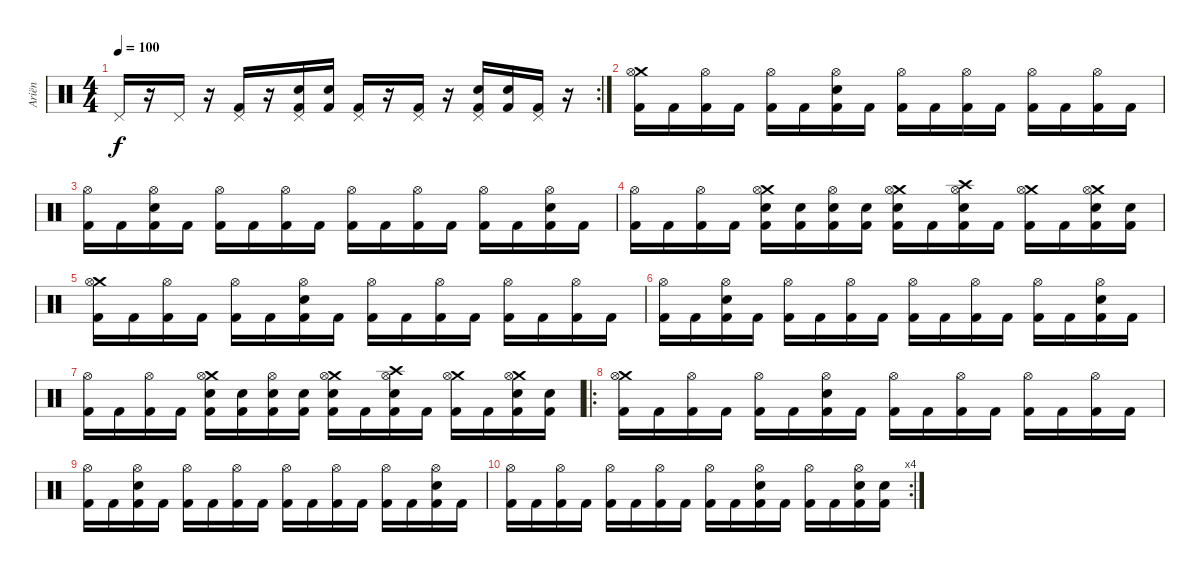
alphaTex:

\track ("Ariën" "Ariën") {instrument percussion}
\staff {score}
\articulation defaults
\rc 2
\ts (4 4)
\tempo 100
\clef neutral
\ks c "Pedal Hi-Hat (hit)".16{dy f}
r.16 "Pedal Hi-Hat (hit)".16 r.16 ("Pedal Hi-Hat (hit)" "Kick (hit) 2").16 r.16 ("Pedal Hi-Hat (hit)" "Snare (hit) 2" "Kick (hit) 2").16 ("Snare (hit) 2" "Kick (hit) 2").16 ("Pedal Hi-Hat (hit)" "Kick (hit) 2").16 r.16 ("Pedal Hi-Hat (hit)" "Kick (hit) 2").16 r.16 ("Pedal Hi-Hat (hit)" "Snare (hit) 2" "Kick (hit) 2").16 ("Snare (hit) 2" "Kick (hit) 2").16 ("Pedal Hi-Hat (hit)" "Kick (hit) 2").16 r.16 |
("Crash medium (hit)" "Hi-Hat (open)" "Kick (hit) 2").16 "Kick (hit) 2".16 ("Hi-Hat (open)" "Kick (hit) 2").16 "Kick (hit) 2".16 ("Hi-Hat (open)" "Kick (hit) 2").16 "Kick (hit) 2".16 ("Hi-Hat (open)" "Snare (hit) 2" "Kick (hit) 2").16 "Kick (hit) 2".16 ("Hi-Hat (open)" "Kick (hit) 2").16 "Kick (hit) 2".16 ("Hi-Hat (open)" "Kick (hit) 2").16 "Kick (hit) 2".16 ("Hi-Hat (open)" "Kick (hit) 2").16 "Kick (hit) 2".16 ("Hi-Hat (open)" "Kick (hit) 2").16 "Kick (hit) 2".16 |
("Hi-Hat (open)" "Kick (hit) 2").16 "Kick (hit) 2".16 ("Hi-Hat (open)" "Snare (hit) 2" "Kick (hit) 2").16 "Kick (hit) 2".16 ("Hi-Hat (open)" "Kick (hit) 2").16 "Kick (hit) 2".16 ("Hi-Hat (open)" "Kick (hit) 2").16 "Kick (hit) 2".16 ("Hi-Hat (open)" "Kick (hit) 2").16 "Kick (hit) 2".16 ("Hi-Hat (open)" "Kick (hit) 2").16 "Kick (hit) 2".16 ("Hi-Hat (open)" "Kick (hit) 2").16 "Kick (hit) 2".16 ("Hi-Hat (open)" "Snare (hit) 2" "Kick (hit) 2").16 "Kick (hit) 2".16 |
("Hi-Hat (open)" "Kick (hit) 2").16 "Kick (hit) 2".16 ("Hi-Hat (open)" "Kick (hit) 2").16 "Kick (hit) 2".16 ("Crash medium (hit)" "Hi-Hat (open)" "Snare (hit) 2" "Kick (hit) 2").16 ("Snare (hit) 2" "Kick (hit) 2").16 ("Hi-Hat (open)" "Snare (hit) 2" "Kick (hit) 2").16 ("Snare (hit) 2" "Kick (hit) 2").16 ("Crash medium (hit)" "Hi-Hat (open)" "Snare (hit) 2" "Kick (hit) 2").16 "Kick (hit) 2".16 ("Crash high (hit)" "Hi-Hat (open)" "Snare (hit) 2" "Kick (hit) 2").16 "Kick (hit) 2".16 ("Crash medium (hit)" "Hi-Hat (open)" "Kick (hit) 2").16 "Kick (hit) 2".16 ("Crash medium (hit)" "Hi-Hat (open)" "Snare (hit) 2" "Kick (hit) 2").16 ("Snare (hit) 2" "Kick (hit) 2").16 |
("Crash medium (hit)" "Hi-Hat (open)" "Kick (hit) 2").16 "Kick (hit) 2".16 ("Hi-Hat (open)" "Kick (hit) 2").16 "Kick (hit) 2".16 ("Hi-Hat (open)" "Kick (hit) 2").16 "Kick (hit) 2".16 ("Hi-Hat (open)" "Snare (hit) 2" "Kick (hit) 2").16 "Kick (hit) 2".16 ("Hi-Hat (open)" "Kick (hit) 2").16 "Kick (hit) 2".16 ("Hi-Hat (open)" "Kick (hit) 2").16 "Kick (hit) 2".16 ("Hi-Hat (open)" "Kick (hit) 2").16 "Kick (hit) 2".16 ("Hi-Hat (open)" "Kick (hit) 2").16 "Kick (hit) 2".16 |
("Hi-Hat (open)" "Kick (hit) 2").16 "Kick (hit) 2".16 ("Hi-Hat (open)" "Snare (hit) 2" "Kick (hit) 2").16 "Kick (hit) 2".16 ("Hi-Hat (open)" "Kick (hit) 2").16 "Kick (hit) 2".16 ("Hi-Hat (open)" "Kick (hit) 2").16 "Kick (hit) 2".16 ("Hi-Hat (open)" "Kick (hit) 2").16 "Kick (hit) 2".16 ("Hi-Hat (open)" "Kick (hit) 2").16 "Kick (hit) 2".16 ("Hi-Hat (open)" "Kick (hit) 2").16 "Kick (hit) 2".16 ("Hi-Hat (open)" "Snare (hit) 2" "Kick (hit) 2").16 "Kick (hit) 2".16 |
("Hi-Hat (open)" "Kick (hit) 2").16 "Kick (hit) 2".16 ("Hi-Hat (open)" "Kick (hit) 2").16 "Kick (hit) 2".16 ("Crash medium (hit)" "Hi-Hat (open)" "Snare (hit) 2" "Kick (hit) 2").16 ("Snare (hit) 2" "Kick (hit) 2").16 ("Hi-Hat (open)" "Snare (hit) 2" "Kick (hit) 2").16 ("Snare (hit) 2" "Kick (hit) 2").16 ("Crash medium (hit)" "Hi-Hat (open)" "Snare (hit) 2" "Kick (hit) 2").16 "Kick (hit) 2".16 ("Crash high (hit)" "Hi-Hat (open)" "Snare (hit) 2" "Kick (hit) 2").16 "Kick (hit) 2".16 ("Crash medium (hit)" "Hi-Hat (open)" "Kick (hit) 2").16 "Kick (hit) 2".16 ("Crash medium (hit)" "Hi-Hat (open)" "Snare (hit) 2" "Kick (hit) 2").16 ("Snare (hit) 2" "Kick (hit) 2").16 |
\ro
("Crash medium (hit)" "Hi-Hat (open)" "Kick (hit) 2").16 "Kick (hit) 2".16 ("Hi-Hat (open)" "Kick (hit) 2").16 "Kick (hit) 2".16 ("Hi-Hat (open)" "Kick (hit) 2").16 "Kick (hit) 2".16 ("Hi-Hat (open)" "Snare (hit) 2" "Kick (hit) 2").16 "Kick (hit) 2".16 ("Hi-Hat (open)" "Kick (hit) 2").16 "Kick (hit) 2".16 ("Hi-Hat (open)" "Kick (hit) 2").16 "Kick (hit) 2".16 ("Hi-Hat (open)" "Kick (hit) 2").16 "Kick (hit) 2".16 ("Hi-Hat (open)" "Kick (hit) 2").16 "Kick (hit) 2".16 |
("Hi-Hat (open)" "Kick (hit) 2").16 "Kick (hit) 2".16 ("Hi-Hat (open)" "Snare (hit) 2" "Kick (hit) 2").16 "Kick (hit) 2".16 ("Hi-Hat (open)" "Kick (hit) 2").16 "Kick (hit) 2".16 ("Hi-Hat (open)" "Kick (hit) 2").16 "Kick (hit) 2".16 ("Hi-Hat (open)" "Kick (hit) 2").16 "Kick (hit) 2".16 ("Hi-Hat (open)" "Kick (hit) 2").16 "Kick (hit) 2".16 ("Hi-Hat (open)" "Kick (hit) 2").16 "Kick (hit) 2".16 ("Hi-Hat (open)" "Snare (hit) 2" "Kick (hit) 2").16 "Kick (hit) 2".16 |
\rc 4
("Hi-Hat (open)" "Kick (hit) 2").16 "Kick (hit) 2".16 ("Hi-Hat (open)" "Kick (hit) 2").16 "Kick (hit) 2".16 ("Hi-Hat (open)" "Kick (hit) 2").16 "Kick (hit) 2".16 ("Hi-Hat (open)" "Kick (hit) 2").16 "Kick (hit) 2".16 ("Hi-Hat (open)" "Kick (hit) 2").16 "Kick (hit) 2".16 ("Hi-Hat (open)" "Snare (hit) 2" "Kick (hit) 2").16 "Kick (hit) 2".16 ("Hi-Hat (open)" "Kick (hit) 2").16 "Kick (hit) 2".16 ("Hi-Hat (open)" "Snare (hit) 2" "Kick (hit) 2").16 ("Snare (hit) 2" "Kick (hit) 2").16
